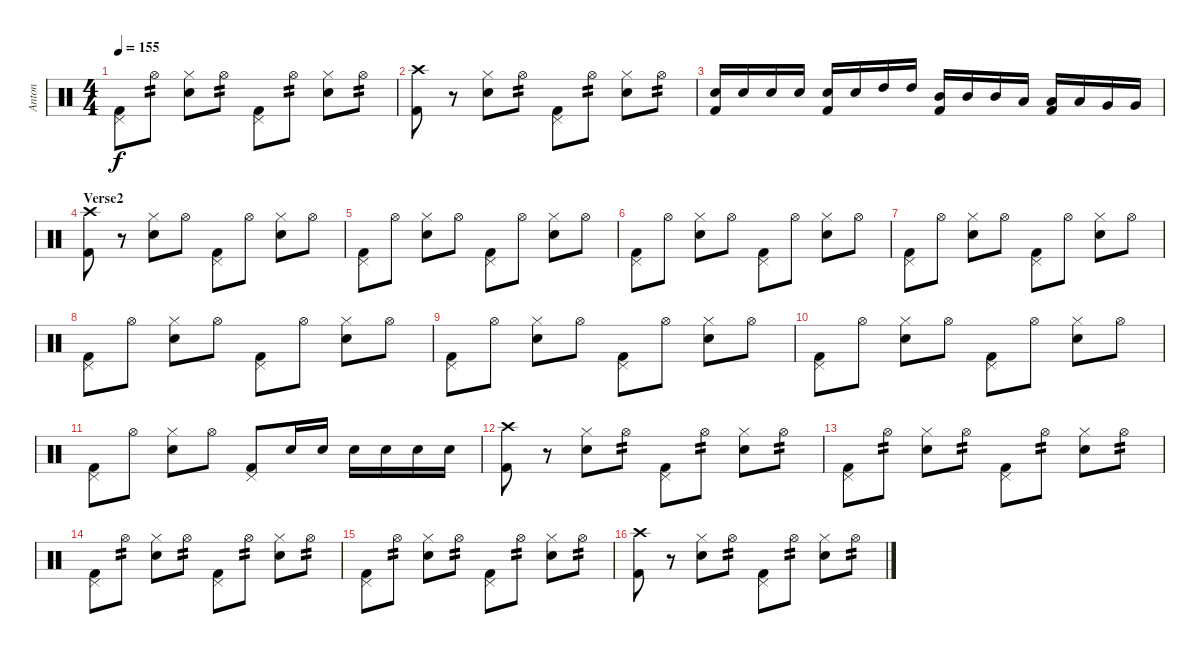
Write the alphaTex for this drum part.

\track ("Anton" "Anton") {instrument percussion}
\staff {score}
\articulation defaults
\ts (4 4)
\tempo 155
\clef neutral
\ks c
("Kick (hit) 2" "Pedal Hi-Hat (hit)").8{dy f} "Hi-Hat (open)".8{tp 2} ("Electric Snare (hit)" "Hi-Hat (closed)").8 "Hi-Hat (open)".8{tp 2} ("Kick (hit) 2" "Pedal Hi-Hat (hit)").8 "Hi-Hat (open)".8{tp 2} ("Electric Snare (hit)" "Hi-Hat (closed)").8 "Hi-Hat (open)".8{tp 2} |
("Kick (hit) 2" "Crash high (hit)").8 r.8 ("Electric Snare (hit)" "Hi-Hat (closed)").8 "Hi-Hat (open)".8{tp 2} ("Kick (hit) 2" "Pedal Hi-Hat (hit)").8 "Hi-Hat (open)".8{tp 2} ("Electric Snare (hit)" "Hi-Hat (closed)").8 "Hi-Hat (open)".8{tp 2} |
("Electric Snare (hit)" "Kick (hit) 2").16 "Electric Snare (hit)".16 "Electric Snare (hit)".16 "Electric Snare (hit)".16 ("Electric Snare (hit)" "Kick (hit) 2").16 "Electric Snare (hit)".16 "High Tom (hit)".16 "High Tom (hit)".16 ("Mid Tom (hit)" "Kick (hit) 2").16 "Mid Tom (hit)".16 "Mid Tom (hit)".16 "Low Tom (hit)".16 ("Low Tom (hit)" "Kick (hit) 2").16 "Low Tom (hit)".16 "Very Low Tom (hit)".16 "Very Low Tom (hit)".16 |
\section ("" "Verse2")
("Kick (hit) 2" "Crash high (hit)").8 r.8 ("Snare (hit) 2" "Hi-Hat (closed)").8 "Hi-Hat (open)".8 ("Kick (hit) 2" "Pedal Hi-Hat (hit)").8 "Hi-Hat (open)".8 ("Snare (hit) 2" "Hi-Hat (closed)").8 "Hi-Hat (open)".8 |
("Kick (hit) 2" "Pedal Hi-Hat (hit)").8 "Hi-Hat (open)".8 ("Snare (hit) 2" "Hi-Hat (closed)").8 "Hi-Hat (open)".8 ("Kick (hit) 2" "Pedal Hi-Hat (hit)").8 "Hi-Hat (open)".8 ("Snare (hit) 2" "Hi-Hat (closed)").8 "Hi-Hat (open)".8 |
("Kick (hit) 2" "Pedal Hi-Hat (hit)").8 "Hi-Hat (open)".8 ("Snare (hit) 2" "Hi-Hat (closed)").8 "Hi-Hat (open)".8 ("Kick (hit) 2" "Pedal Hi-Hat (hit)").8 "Hi-Hat (open)".8 ("Snare (hit) 2" "Hi-Hat (closed)").8 "Hi-Hat (open)".8 |
("Kick (hit) 2" "Pedal Hi-Hat (hit)").8 "Hi-Hat (open)".8 ("Snare (hit) 2" "Hi-Hat (closed)").8 "Hi-Hat (open)".8 ("Kick (hit) 2" "Pedal Hi-Hat (hit)").8 "Hi-Hat (open)".8 ("Snare (hit) 2" "Hi-Hat (closed)").8 "Hi-Hat (open)".8 |
("Kick (hit) 2" "Pedal Hi-Hat (hit)").8 "Hi-Hat (open)".8 ("Snare (hit) 2" "Hi-Hat (closed)").8 "Hi-Hat (open)".8 ("Kick (hit) 2" "Pedal Hi-Hat (hit)").8 "Hi-Hat (open)".8 ("Snare (hit) 2" "Hi-Hat (closed)").8 "Hi-Hat (open)".8 |
("Kick (hit) 2" "Pedal Hi-Hat (hit)").8 "Hi-Hat (open)".8 ("Snare (hit) 2" "Hi-Hat (closed)").8 "Hi-Hat (open)".8 ("Kick (hit) 2" "Pedal Hi-Hat (hit)").8 "Hi-Hat (open)".8 ("Snare (hit) 2" "Hi-Hat (closed)").8 "Hi-Hat (open)".8 |
("Kick (hit) 2" "Pedal Hi-Hat (hit)").8 "Hi-Hat (open)".8 ("Snare (hit) 2" "Hi-Hat (closed)").8 "Hi-Hat (open)".8 ("Kick (hit) 2" "Pedal Hi-Hat (hit)").8 "Hi-Hat (open)".8 ("Snare (hit) 2" "Hi-Hat (closed)").8 "Hi-Hat (open)".8 |
("Kick (hit) 2" "Pedal Hi-Hat (hit)").8 "Hi-Hat (open)".8 ("Snare (hit) 2" "Hi-Hat (closed)").8 "Hi-Hat (open)".8 ("Kick (hit) 2" "Pedal Hi-Hat (hit)").8 "Snare (hit) 2".16 "Snare (hit) 2".16 "Snare (hit) 2".16 "Snare (hit) 2".16 "Snare (hit) 2".16 "Snare (hit) 2".16 |
("Kick (hit) 2" "Crash high (hit)").8 r.8 ("Electric Snare (hit)" "Hi-Hat (closed)").8 "Hi-Hat (open)".8{tp 2} ("Kick (hit) 2" "Pedal Hi-Hat (hit)").8 "Hi-Hat (open)".8{tp 2} ("Electric Snare (hit)" "Hi-Hat (closed)").8 "Hi-Hat (open)".8{tp 2} |
("Kick (hit) 2" "Pedal Hi-Hat (hit)").8 "Hi-Hat (open)".8{tp 2} ("Electric Snare (hit)" "Hi-Hat (closed)").8 "Hi-Hat (open)".8{tp 2} ("Kick (hit) 2" "Pedal Hi-Hat (hit)").8 "Hi-Hat (open)".8{tp 2} ("Electric Snare (hit)" "Hi-Hat (closed)").8 "Hi-Hat (open)".8{tp 2} |
("Kick (hit) 2" "Pedal Hi-Hat (hit)").8 "Hi-Hat (open)".8{tp 2} ("Electric Snare (hit)" "Hi-Hat (closed)").8 "Hi-Hat (open)".8{tp 2} ("Kick (hit) 2" "Pedal Hi-Hat (hit)").8 "Hi-Hat (open)".8{tp 2} ("Electric Snare (hit)" "Hi-Hat (closed)").8 "Hi-Hat (open)".8{tp 2} |
("Kick (hit) 2" "Pedal Hi-Hat (hit)").8 "Hi-Hat (open)".8{tp 2} ("Electric Snare (hit)" "Hi-Hat (closed)").8 "Hi-Hat (open)".8{tp 2} ("Kick (hit) 2" "Pedal Hi-Hat (hit)").8 "Hi-Hat (open)".8{tp 2} ("Electric Snare (hit)" "Hi-Hat (closed)").8 "Hi-Hat (open)".8{tp 2} |
("Kick (hit) 2" "Crash high (hit)").8 r.8 ("Electric Snare (hit)" "Hi-Hat (closed)").8 "Hi-Hat (open)".8{tp 2} ("Kick (hit) 2" "Pedal Hi-Hat (hit)").8 "Hi-Hat (open)".8{tp 2} ("Electric Snare (hit)" "Hi-Hat (closed)").8 "Hi-Hat (open)".8{tp 2}
